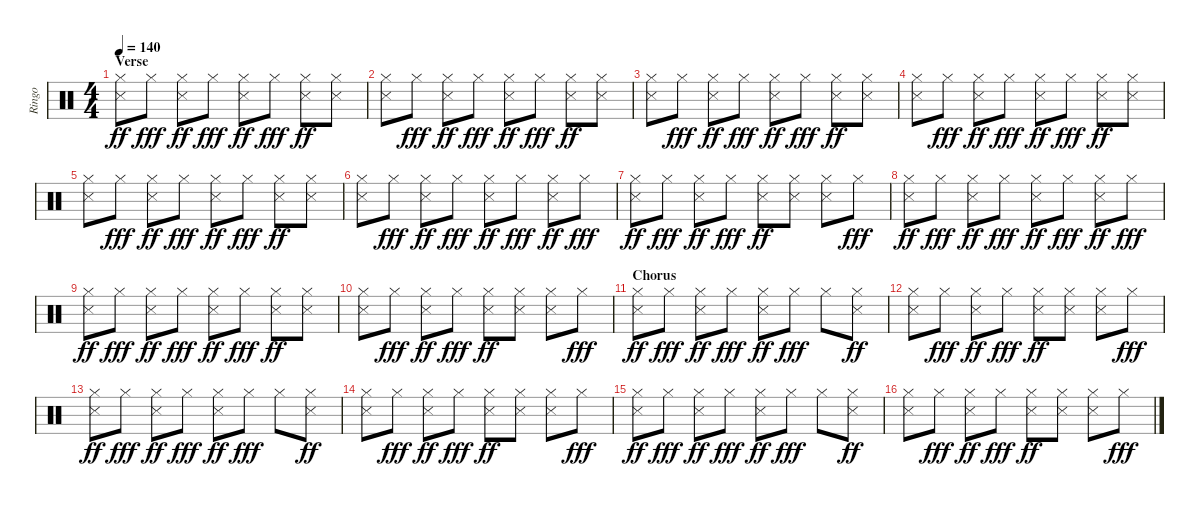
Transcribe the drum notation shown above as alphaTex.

\track ("Ringo" "Ringo") {instrument percussion}
\staff {score}
\articulation defaults
\ts (4 4)
\section ("" "Verse")
\tempo 140
\clef neutral
\ks c
("Hi-Hat (closed)" "Snare (side stick) 3").8{dy ff} "Hi-Hat (closed)".8{dy fff} ("Hi-Hat (closed)" "Snare (side stick) 3").8{dy ff} "Hi-Hat (closed)".8{dy fff} ("Hi-Hat (closed)" "Snare (side stick) 3").8{dy ff} "Hi-Hat (closed)".8{dy fff} ("Hi-Hat (closed)" "Snare (side stick) 3").8{dy ff} ("Hi-Hat (closed)" "Snare (side stick) 3").8 |
("Hi-Hat (closed)" "Snare (side stick) 3").8 "Hi-Hat (closed)".8{dy fff} ("Hi-Hat (closed)" "Snare (side stick) 3").8{dy ff} "Hi-Hat (closed)".8{dy fff} ("Hi-Hat (closed)" "Snare (side stick) 3").8{dy ff} "Hi-Hat (closed)".8{dy fff} ("Hi-Hat (closed)" "Snare (side stick) 3").8{dy ff} ("Hi-Hat (closed)" "Snare (side stick) 3").8 |
("Hi-Hat (closed)" "Snare (side stick) 3").8 "Hi-Hat (closed)".8{dy fff} ("Hi-Hat (closed)" "Snare (side stick) 3").8{dy ff} "Hi-Hat (closed)".8{dy fff} ("Hi-Hat (closed)" "Snare (side stick) 3").8{dy ff} "Hi-Hat (closed)".8{dy fff} ("Hi-Hat (closed)" "Snare (side stick) 3").8{dy ff} ("Hi-Hat (closed)" "Snare (side stick) 3").8 |
("Hi-Hat (closed)" "Snare (side stick) 3").8 "Hi-Hat (closed)".8{dy fff} ("Hi-Hat (closed)" "Snare (side stick) 3").8{dy ff} "Hi-Hat (closed)".8{dy fff} ("Hi-Hat (closed)" "Snare (side stick) 3").8{dy ff} "Hi-Hat (closed)".8{dy fff} ("Hi-Hat (closed)" "Snare (side stick) 3").8{dy ff} ("Hi-Hat (closed)" "Snare (side stick) 3").8 |
("Hi-Hat (closed)" "Snare (side stick) 3").8 "Hi-Hat (closed)".8{dy fff} ("Hi-Hat (closed)" "Snare (side stick) 3").8{dy ff} "Hi-Hat (closed)".8{dy fff} ("Hi-Hat (closed)" "Snare (side stick) 3").8{dy ff} "Hi-Hat (closed)".8{dy fff} ("Hi-Hat (closed)" "Snare (side stick) 3").8{dy ff} ("Hi-Hat (closed)" "Snare (side stick) 3").8 |
("Hi-Hat (closed)" "Snare (side stick) 3").8 "Hi-Hat (closed)".8{dy fff} ("Hi-Hat (closed)" "Snare (side stick) 3").8{dy ff} "Hi-Hat (closed)".8{dy fff} ("Hi-Hat (closed)" "Snare (side stick) 3").8{dy ff} "Hi-Hat (closed)".8{dy fff} ("Hi-Hat (closed)" "Snare (side stick) 3").8{dy ff} "Hi-Hat (closed)".8{dy fff} |
("Hi-Hat (closed)" "Snare (side stick) 3").8{dy ff} "Hi-Hat (closed)".8{dy fff} ("Hi-Hat (closed)" "Snare (side stick) 3").8{dy ff} "Hi-Hat (closed)".8{dy fff} ("Hi-Hat (closed)" "Snare (side stick) 3").8{dy ff} ("Hi-Hat (closed)" "Snare (side stick) 3").8 ("Hi-Hat (closed)" "Snare (side stick) 3").8 "Hi-Hat (closed)".8{dy fff} |
("Hi-Hat (closed)" "Snare (side stick) 3").8{dy ff} "Hi-Hat (closed)".8{dy fff} ("Hi-Hat (closed)" "Snare (side stick) 3").8{dy ff} "Hi-Hat (closed)".8{dy fff} ("Hi-Hat (closed)" "Snare (side stick) 3").8{dy ff} "Hi-Hat (closed)".8{dy fff} ("Hi-Hat (closed)" "Snare (side stick) 3").8{dy ff} "Hi-Hat (closed)".8{dy fff} |
("Hi-Hat (closed)" "Snare (side stick) 3").8{dy ff} "Hi-Hat (closed)".8{dy fff} ("Hi-Hat (closed)" "Snare (side stick) 3").8{dy ff} "Hi-Hat (closed)".8{dy fff} ("Hi-Hat (closed)" "Snare (side stick) 3").8{dy ff} "Hi-Hat (closed)".8{dy fff} ("Hi-Hat (closed)" "Snare (side stick) 3").8{dy ff} ("Hi-Hat (closed)" "Snare (side stick) 3").8 |
("Hi-Hat (closed)" "Snare (side stick) 3").8 "Hi-Hat (closed)".8{dy fff} ("Hi-Hat (closed)" "Snare (side stick) 3").8{dy ff} "Hi-Hat (closed)".8{dy fff} ("Hi-Hat (closed)" "Snare (side stick) 3").8{dy ff} ("Hi-Hat (closed)" "Snare (side stick) 3").8 ("Hi-Hat (closed)" "Snare (side stick) 3").8 "Hi-Hat (closed)".8{dy fff} |
\section ("" "Chorus")
("Hi-Hat (closed)" "Snare (side stick) 3").8{dy ff} "Hi-Hat (closed)".8{dy fff} ("Hi-Hat (closed)" "Snare (side stick) 3").8{dy ff} "Hi-Hat (closed)".8{dy fff} ("Hi-Hat (closed)" "Snare (side stick) 3").8{dy ff} "Hi-Hat (closed)".8{dy fff} "Hi-Hat (closed)".8 ("Hi-Hat (closed)" "Snare (side stick) 3").8{dy ff} |
("Hi-Hat (closed)" "Snare (side stick) 3").8 "Hi-Hat (closed)".8{dy fff} ("Hi-Hat (closed)" "Snare (side stick) 3").8{dy ff} "Hi-Hat (closed)".8{dy fff} ("Hi-Hat (closed)" "Snare (side stick) 3").8{dy ff} ("Hi-Hat (closed)" "Snare (side stick) 3").8 ("Hi-Hat (closed)" "Snare (side stick) 3").8 "Hi-Hat (closed)".8{dy fff} |
("Hi-Hat (closed)" "Snare (side stick) 3").8{dy ff} "Hi-Hat (closed)".8{dy fff} ("Hi-Hat (closed)" "Snare (side stick) 3").8{dy ff} "Hi-Hat (closed)".8{dy fff} ("Hi-Hat (closed)" "Snare (side stick) 3").8{dy ff} "Hi-Hat (closed)".8{dy fff} "Hi-Hat (closed)".8 ("Hi-Hat (closed)" "Snare (side stick) 3").8{dy ff} |
("Hi-Hat (closed)" "Snare (side stick) 3").8 "Hi-Hat (closed)".8{dy fff} ("Hi-Hat (closed)" "Snare (side stick) 3").8{dy ff} "Hi-Hat (closed)".8{dy fff} ("Hi-Hat (closed)" "Snare (side stick) 3").8{dy ff} ("Hi-Hat (closed)" "Snare (side stick) 3").8 ("Hi-Hat (closed)" "Snare (side stick) 3").8 "Hi-Hat (closed)".8{dy fff} |
("Hi-Hat (closed)" "Snare (side stick) 3").8{dy ff} "Hi-Hat (closed)".8{dy fff} ("Hi-Hat (closed)" "Snare (side stick) 3").8{dy ff} "Hi-Hat (closed)".8{dy fff} ("Hi-Hat (closed)" "Snare (side stick) 3").8{dy ff} "Hi-Hat (closed)".8{dy fff} "Hi-Hat (closed)".8 ("Hi-Hat (closed)" "Snare (side stick) 3").8{dy ff} |
("Hi-Hat (closed)" "Snare (side stick) 3").8 "Hi-Hat (closed)".8{dy fff} ("Hi-Hat (closed)" "Snare (side stick) 3").8{dy ff} "Hi-Hat (closed)".8{dy fff} ("Hi-Hat (closed)" "Snare (side stick) 3").8{dy ff} ("Hi-Hat (closed)" "Snare (side stick) 3").8 ("Hi-Hat (closed)" "Snare (side stick) 3").8 "Hi-Hat (closed)".8{dy fff}
